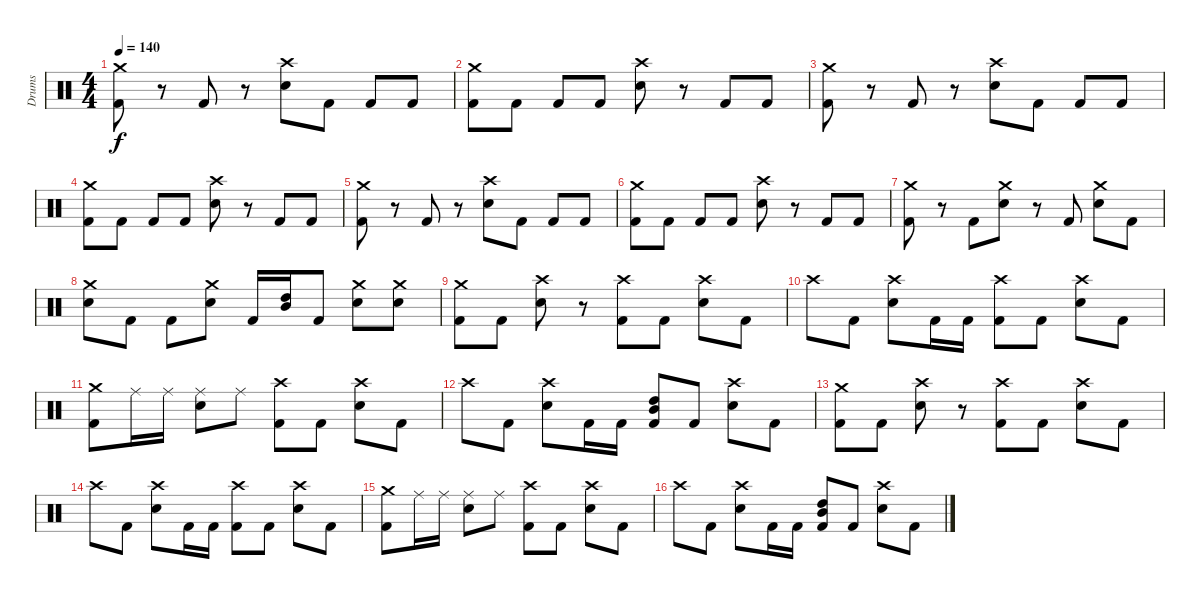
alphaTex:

\track ("Drums" "Drums") {instrument percussion}
\staff {score}
\articulation defaults
\ts (4 4)
\tempo 140
\clef neutral
\ks c
("Crash medium (hit)" "Kick (hit) 2").8{dy f} r.8 "Kick (hit) 2".8 r.8 ("Crash high (hit)" "Electric Snare (hit)").8 "Kick (hit) 2".8 "Kick (hit) 2".8 "Kick (hit) 2".8 |
("Crash medium (hit)" "Kick (hit) 2").8 "Kick (hit) 2".8 "Kick (hit) 2".8 "Kick (hit) 2".8 ("Crash high (hit)" "Electric Snare (hit)").8 r.8 "Kick (hit) 2".8 "Kick (hit) 2".8 |
("Crash medium (hit)" "Kick (hit) 2").8 r.8 "Kick (hit) 2".8 r.8 ("Crash high (hit)" "Electric Snare (hit)").8 "Kick (hit) 2".8 "Kick (hit) 2".8 "Kick (hit) 2".8 |
("Crash medium (hit)" "Kick (hit) 2").8 "Kick (hit) 2".8 "Kick (hit) 2".8 "Kick (hit) 2".8 ("Crash high (hit)" "Electric Snare (hit)").8 r.8 "Kick (hit) 2".8 "Kick (hit) 2".8 |
("Crash medium (hit)" "Kick (hit) 2").8 r.8 "Kick (hit) 2".8 r.8 ("Crash high (hit)" "Electric Snare (hit)").8 "Kick (hit) 2".8 "Kick (hit) 2".8 "Kick (hit) 2".8 |
("Crash medium (hit)" "Kick (hit) 2").8 "Kick (hit) 2".8 "Kick (hit) 2".8 "Kick (hit) 2".8 ("Crash high (hit)" "Electric Snare (hit)").8 r.8 "Kick (hit) 2".8 "Kick (hit) 2".8 |
("Crash medium (hit)" "Kick (hit) 2").8 r.8 "Kick (hit) 2".8 ("Crash medium (hit)" "Electric Snare (hit)").8 r.8 "Kick (hit) 2".8 ("Crash medium (hit)" "Electric Snare (hit)").8 "Kick (hit) 2".8 |
("Crash medium (hit)" "Electric Snare (hit)").8 "Kick (hit) 2".8 "Kick (hit) 2".8 ("Crash medium (hit)" "Electric Snare (hit)").8 "Kick (hit) 2".16 ("Mid Tom (hit)" "High Tom (hit)").16 "Kick (hit) 2".8 ("Crash medium (hit)" "Electric Snare (hit)").8 ("Crash medium (hit)" "Electric Snare (hit)").8 |
("Crash medium (hit)" "Kick (hit) 2").8 "Kick (hit) 2".8 ("Crash high (hit)" "Electric Snare (hit)").8 r.8 ("Crash high (hit)" "Kick (hit) 2").8 "Kick (hit) 2".8 ("Crash high (hit)" "Electric Snare (hit)").8 "Kick (hit) 2".8 |
"Crash high (hit)".8 "Kick (hit) 2".8 ("Crash high (hit)" "Electric Snare (hit)").8 "Kick (hit) 2".16 "Kick (hit) 2".16 ("Crash high (hit)" "Kick (hit) 2").8 "Kick (hit) 2".8 ("Crash high (hit)" "Electric Snare (hit)").8 "Kick (hit) 2".8 |
("Crash medium (hit)" "Kick (hit) 2").8 "Ride (middle)".16 "Ride (middle)".16 ("Ride (middle)" "Electric Snare (hit)").8 "Ride (middle)".8 ("Crash high (hit)" "Kick (hit) 2").8 "Kick (hit) 2".8 ("Crash high (hit)" "Electric Snare (hit)").8 "Kick (hit) 2".8 |
"Crash high (hit)".8 "Kick (hit) 2".8 ("Crash high (hit)" "Electric Snare (hit)").8 "Kick (hit) 2".16 "Kick (hit) 2".16 ("Mid Tom (hit)" "High Tom (hit)" "Kick (hit) 2").8 "Kick (hit) 2".8 ("Crash high (hit)" "Electric Snare (hit)").8 "Kick (hit) 2".8 |
("Crash medium (hit)" "Kick (hit) 2").8 "Kick (hit) 2".8 ("Crash high (hit)" "Electric Snare (hit)").8 r.8 ("Crash high (hit)" "Kick (hit) 2").8 "Kick (hit) 2".8 ("Crash high (hit)" "Electric Snare (hit)").8 "Kick (hit) 2".8 |
"Crash high (hit)".8 "Kick (hit) 2".8 ("Crash high (hit)" "Electric Snare (hit)").8 "Kick (hit) 2".16 "Kick (hit) 2".16 ("Crash high (hit)" "Kick (hit) 2").8 "Kick (hit) 2".8 ("Crash high (hit)" "Electric Snare (hit)").8 "Kick (hit) 2".8 |
("Crash medium (hit)" "Kick (hit) 2").8 "Ride (middle)".16 "Ride (middle)".16 ("Ride (middle)" "Electric Snare (hit)").8 "Ride (middle)".8 ("Crash high (hit)" "Kick (hit) 2").8 "Kick (hit) 2".8 ("Crash high (hit)" "Electric Snare (hit)").8 "Kick (hit) 2".8 |
"Crash high (hit)".8 "Kick (hit) 2".8 ("Crash high (hit)" "Electric Snare (hit)").8 "Kick (hit) 2".16 "Kick (hit) 2".16 ("Mid Tom (hit)" "High Tom (hit)" "Kick (hit) 2").8 "Kick (hit) 2".8 ("Crash high (hit)" "Electric Snare (hit)").8 "Kick (hit) 2".8
